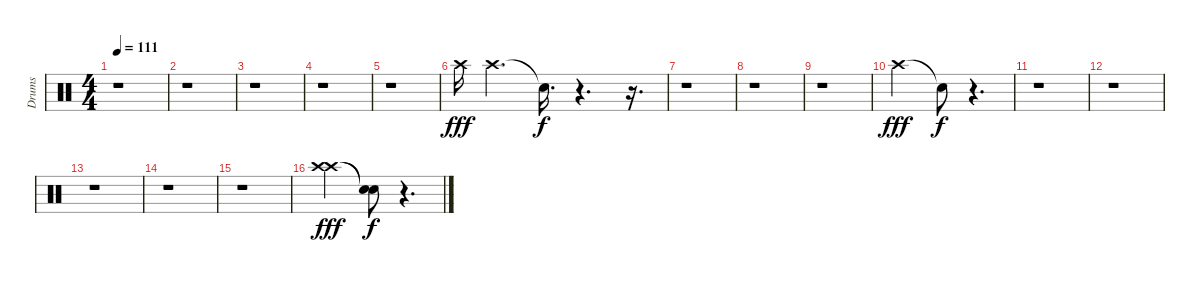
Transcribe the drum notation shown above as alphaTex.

\track ("Drums" "Drums") {instrument percussion}
\staff {score}
\articulation defaults
\ts (4 4)
\tempo 111
\clef neutral
\ks c
r.1{dy fff} |
r.1 |
r.1 |
r.1 |
r.1 |
"Crash high (hit)".16 "Crash high (hit)".4{d} "Snare (hit)"{t}.16{d dy f} r.4{d} r.16{d} |
r.1 |
r.1 |
r.1 |
"Crash high (hit)".2{dy fff} "Snare (hit)"{t}.8{dy f} r.4{d} |
r.1 |
r.1 |
r.1 |
r.1 |
r.1 |
("Crash high (hit)" "Crash high (hit)").2{dy fff} ("Snare (hit)"{t} "Snare (hit)"{t}).8{dy f} r.4{d}
